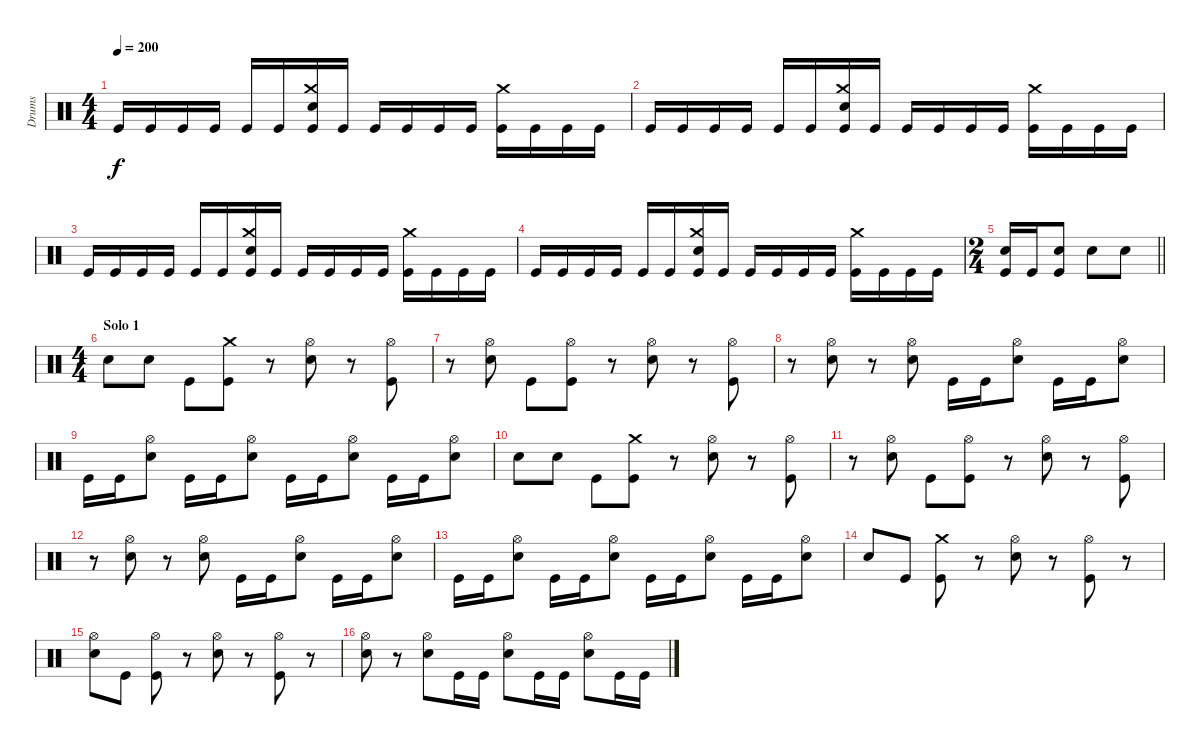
\track ("Drums" "Drums") {instrument percussion}
\staff {score}
\articulation defaults
\ts (4 4)
\tempo 200
\clef neutral
\ks c "Kick (hit)".16{dy f} "Kick (hit)".16 "Kick (hit)".16 "Kick (hit)".16 "Kick (hit)".16 "Kick (hit)".16
("Crash medium (hit)" "Snare (hit) 2" "Kick (hit)").16 "Kick (hit)".16 "Kick (hit)".16 "Kick (hit)".16 "Kick (hit)".16 "Kick (hit)".16 ("Crash medium (hit)" "Kick (hit)").16 "Kick (hit)".16 "Kick (hit)".16 "Kick (hit)".16 |
"Kick (hit)".16 "Kick (hit)".16 "Kick (hit)".16 "Kick (hit)".16 "Kick (hit)".16 "Kick (hit)".16 ("Crash medium (hit)" "Snare (hit) 2" "Kick (hit)").16 "Kick (hit)".16 "Kick (hit)".16 "Kick (hit)".16 "Kick (hit)".16 "Kick (hit)".16 ("Crash medium (hit)" "Kick (hit)").16 "Kick (hit)".16 "Kick (hit)".16 "Kick (hit)".16 |
"Kick (hit)".16 "Kick (hit)".16 "Kick (hit)".16 "Kick (hit)".16 "Kick (hit)".16 "Kick (hit)".16 ("Crash medium (hit)" "Snare (hit) 2" "Kick (hit)").16 "Kick (hit)".16 "Kick (hit)".16 "Kick (hit)".16 "Kick (hit)".16 "Kick (hit)".16 ("Crash medium (hit)" "Kick (hit)").16 "Kick (hit)".16 "Kick (hit)".16 "Kick (hit)".16 |
"Kick (hit)".16 "Kick (hit)".16 "Kick (hit)".16 "Kick (hit)".16 "Kick (hit)".16 "Kick (hit)".16 ("Crash medium (hit)" "Snare (hit) 2" "Kick (hit)").16 "Kick (hit)".16 "Kick (hit)".16 "Kick (hit)".16 "Kick (hit)".16 "Kick (hit)".16 ("Crash medium (hit)" "Kick (hit)").16 "Kick (hit)".16 "Kick (hit)".16 "Kick (hit)".16 |
\ts (2 4)
\barLineRight lightlight
("Snare (hit) 2" "Kick (hit)").16 "Kick (hit)".16 ("Snare (hit) 2" "Kick (hit)").8 "Snare (hit) 2".8 "Snare (hit) 2".8 |
\ts (4 4)
\section ("" "Solo 1")
"Snare (hit) 2".8 "Snare (hit) 2".8 "Kick (hit)".8 ("Crash medium (hit)" "Kick (hit)").8 r.8 ("Hi-Hat (open)" "Snare (hit) 2").8 r.8 ("Hi-Hat (open)" "Kick (hit)").8 |
r.8 ("Hi-Hat (open)" "Snare (hit) 2").8 "Kick (hit)".8 ("Hi-Hat (open)" "Kick (hit)").8 r.8 ("Hi-Hat (open)" "Snare (hit) 2").8 r.8 ("Hi-Hat (open)" "Kick (hit)").8 |
r.8 ("Hi-Hat (open)" "Snare (hit) 2").8 r.8 ("Hi-Hat (open)" "Snare (hit) 2").8 "Kick (hit)".16 "Kick (hit)".16 ("Hi-Hat (open)" "Snare (hit) 2").8 "Kick (hit)".16 "Kick (hit)".16 ("Hi-Hat (open)" "Snare (hit) 2").8 |
"Kick (hit)".16 "Kick (hit)".16 ("Hi-Hat (open)" "Snare (hit) 2").8 "Kick (hit)".16 "Kick (hit)".16 ("Hi-Hat (open)" "Snare (hit) 2").8 "Kick (hit)".16 "Kick (hit)".16 ("Hi-Hat (open)" "Snare (hit) 2").8 "Kick (hit)".16 "Kick (hit)".16 ("Hi-Hat (open)" "Snare (hit) 2").8 |
"Snare (hit) 2".8 "Snare (hit) 2".8 "Kick (hit)".8 ("Crash medium (hit)" "Kick (hit)").8 r.8 ("Hi-Hat (open)" "Snare (hit) 2").8 r.8 ("Hi-Hat (open)" "Kick (hit)").8 |
r.8 ("Hi-Hat (open)" "Snare (hit) 2").8 "Kick (hit)".8 ("Hi-Hat (open)" "Kick (hit)").8 r.8 ("Hi-Hat (open)" "Snare (hit) 2").8 r.8 ("Hi-Hat (open)" "Kick (hit)").8 |
r.8 ("Hi-Hat (open)" "Snare (hit) 2").8 r.8 ("Hi-Hat (open)" "Snare (hit) 2").8 "Kick (hit)".16 "Kick (hit)".16 ("Hi-Hat (open)" "Snare (hit) 2").8 "Kick (hit)".16 "Kick (hit)".16 ("Hi-Hat (open)" "Snare (hit) 2").8 |
"Kick (hit)".16 "Kick (hit)".16 ("Hi-Hat (open)" "Snare (hit) 2").8 "Kick (hit)".16 "Kick (hit)".16 ("Hi-Hat (open)" "Snare (hit) 2").8 "Kick (hit)".16 "Kick (hit)".16 ("Hi-Hat (open)" "Snare (hit) 2").8 "Kick (hit)".16 "Kick (hit)".16 ("Hi-Hat (open)" "Snare (hit) 2").8 |
"Snare (hit) 2".8 "Kick (hit)".8 ("Crash medium (hit)" "Kick (hit)").8 r.8 ("Hi-Hat (open)" "Snare (hit) 2").8 r.8 ("Hi-Hat (open)" "Kick (hit)").8 r.8 |
("Hi-Hat (open)" "Snare (hit) 2").8 "Kick (hit)".8 ("Hi-Hat (open)" "Kick (hit)").8 r.8 ("Hi-Hat (open)" "Snare (hit) 2").8 r.8 ("Hi-Hat (open)" "Kick (hit)").8 r.8 |
("Hi-Hat (open)" "Snare (hit) 2").8 r.8 ("Hi-Hat (open)" "Snare (hit) 2").8 "Kick (hit)".16 "Kick (hit)".16 ("Hi-Hat (open)" "Snare (hit) 2").8 "Kick (hit)".16 "Kick (hit)".16 ("Hi-Hat (open)" "Snare (hit) 2").8 "Kick (hit)".16 "Kick (hit)".16
